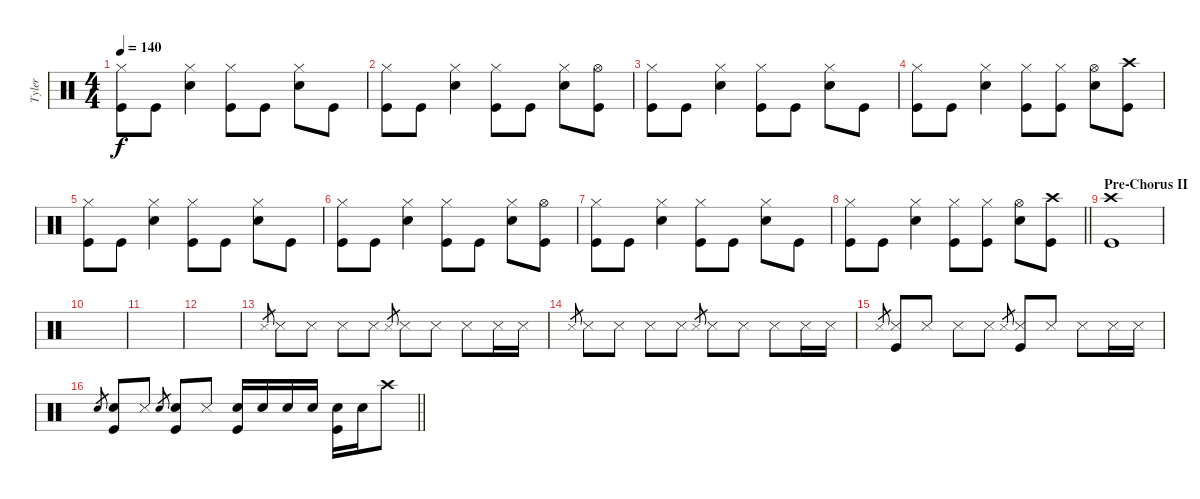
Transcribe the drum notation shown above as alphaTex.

\track ("Tyler" "Tyler") {instrument percussion}
\staff {score}
\articulation defaults
\ts (4 4)
\tempo 140
\clef neutral
\ks c
("Hi-Hat (closed)" "Kick (hit)").8{dy f} "Kick (hit)".8 ("Hi-Hat (closed)" "Snare (hit) 2").4 ("Hi-Hat (closed)" "Kick (hit)").8 "Kick (hit)".8 ("Hi-Hat (closed)" "Snare (hit) 2").8 "Kick (hit)".8 |
("Hi-Hat (closed)" "Kick (hit)").8 "Kick (hit)".8 ("Hi-Hat (closed)" "Snare (hit) 2").4 ("Hi-Hat (closed)" "Kick (hit)").8 "Kick (hit)".8 ("Hi-Hat (closed)" "Snare (hit) 2").8 ("Hi-Hat (open)" "Kick (hit)").8 |
("Hi-Hat (closed)" "Kick (hit)").8 "Kick (hit)".8 ("Hi-Hat (closed)" "Snare (hit) 2").4 ("Hi-Hat (closed)" "Kick (hit)").8 "Kick (hit)".8 ("Hi-Hat (closed)" "Snare (hit) 2").8 "Kick (hit)".8 |
("Hi-Hat (closed)" "Kick (hit)").8 "Kick (hit)".8 ("Hi-Hat (closed)" "Snare (hit) 2").4 ("Hi-Hat (closed)" "Kick (hit)").8 ("Hi-Hat (closed)" "Kick (hit)").8 ("Hi-Hat (open)" "Snare (hit) 2").8 ("Crash high (hit)" "Kick (hit)").8 |
("Hi-Hat (closed)" "Kick (hit)").8 "Kick (hit)".8 ("Hi-Hat (closed)" "Snare (hit) 2").4 ("Hi-Hat (closed)" "Kick (hit)").8 "Kick (hit)".8 ("Hi-Hat (closed)" "Snare (hit) 2").8 "Kick (hit)".8 |
("Hi-Hat (closed)" "Kick (hit)").8 "Kick (hit)".8 ("Hi-Hat (closed)" "Snare (hit) 2").4 ("Hi-Hat (closed)" "Kick (hit)").8 "Kick (hit)".8 ("Hi-Hat (closed)" "Snare (hit) 2").8 ("Hi-Hat (open)" "Kick (hit)").8 |
("Hi-Hat (closed)" "Kick (hit)").8 "Kick (hit)".8 ("Hi-Hat (closed)" "Snare (hit) 2").4 ("Hi-Hat (closed)" "Kick (hit)").8 "Kick (hit)".8 ("Hi-Hat (closed)" "Snare (hit) 2").8 "Kick (hit)".8 |
\barLineRight lightlight
("Hi-Hat (closed)" "Kick (hit)").8 "Kick (hit)".8 ("Hi-Hat (closed)" "Snare (hit) 2").4 ("Hi-Hat (closed)" "Kick (hit)").8 ("Hi-Hat (closed)" "Kick (hit)").8 ("Hi-Hat (open)" "Snare (hit) 2").8 ("Crash high (hit)" "Kick (hit)").8 |
\section ("" "Pre-Chorus II")
("Crash high (hit)" "Kick (hit)").1 |
|
|
|
"Snare (side stick) 3".8{gr} "Snare (side stick) 3".8 "Snare (side stick) 3".8 "Snare (side stick) 3".8 "Snare (side stick) 3".8 "Snare (side stick) 3".8{gr} "Snare (side stick) 3".8 "Snare (side stick) 3".8 "Snare (side stick) 3".8 "Snare (side stick) 3".16 "Snare (side stick) 3".16 |
"Snare (side stick) 3".8{gr} "Snare (side stick) 3".8 "Snare (side stick) 3".8 "Snare (side stick) 3".8 "Snare (side stick) 3".8 "Snare (side stick) 3".8{gr} "Snare (side stick) 3".8 "Snare (side stick) 3".8 "Snare (side stick) 3".8 "Snare (side stick) 3".16 "Snare (side stick) 3".16 |
"Snare (side stick) 3".8{gr} ("Kick (hit)" "Snare (side stick) 3").8 "Snare (side stick) 3".8 "Snare (side stick) 3".8 "Snare (side stick) 3".8 "Snare (side stick) 3".8{gr} ("Kick (hit)" "Snare (side stick) 3").8 "Snare (side stick) 3".8 "Snare (side stick) 3".8 "Snare (side stick) 3".16 "Snare (side stick) 3".16 |
\barLineRight lightlight "Snare (hit) 2".8{gr}
("Kick (hit)" "Snare (hit) 2").8 "Snare (side stick) 3".8 "Snare (hit) 2".8{gr} ("Kick (hit)" "Snare (hit) 2").8 "Snare (side stick) 3".8 ("Kick (hit)" "Snare (hit) 2").16 "Snare (hit) 2".16 "Snare (hit) 2".16 "Snare (hit) 2".16 ("Kick (hit)" "Snare (hit) 2").16 "Snare (hit) 2".16 "Crash high (hit)".8
